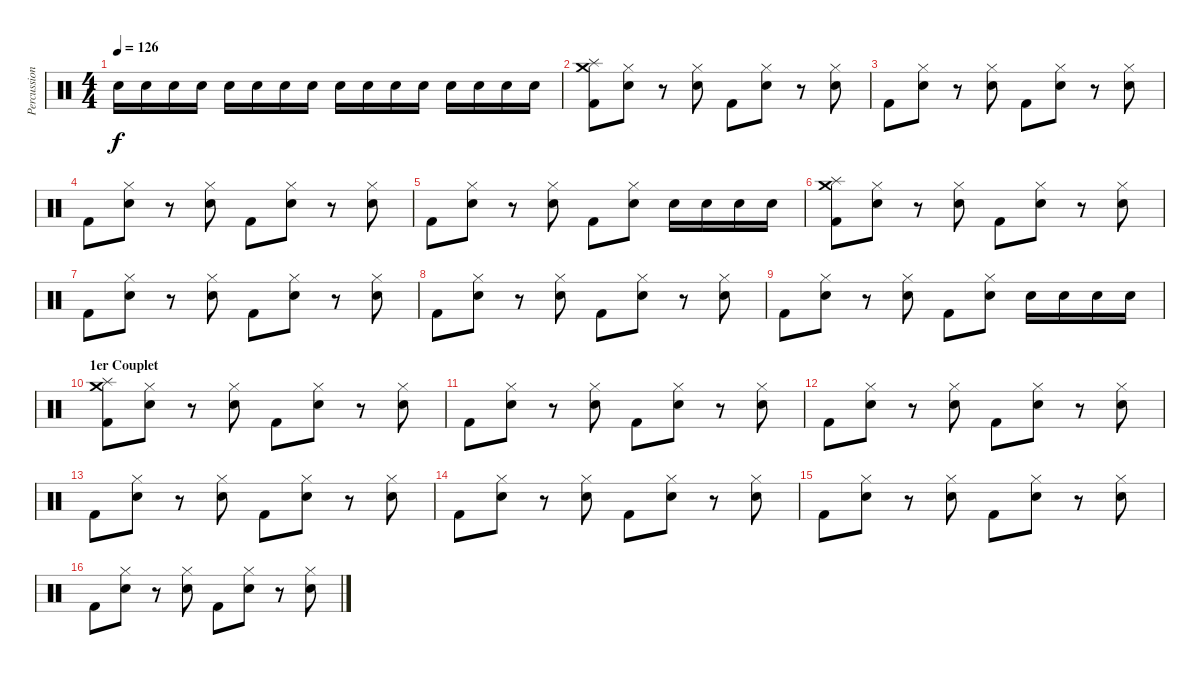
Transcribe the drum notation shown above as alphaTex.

\track ("Percussions" "Percussion") {instrument percussion}
\staff {score}
\articulation defaults
\ts (4 4)
\tempo 126
\clef neutral
\ks c "Snare (hit) 2".16{dy f} "Snare (hit) 2".16 "Snare (hit) 2".16 "Snare (hit) 2".16 "Snare (hit) 2".16 "Snare (hit) 2".16 "Snare (hit) 2".16 "Snare (hit) 2".16 "Snare (hit) 2".16 "Snare (hit) 2".16 "Snare (hit) 2".16 "Snare (hit) 2".16 "Snare (hit) 2".16 "Snare (hit) 2".16 "Snare (hit) 2".16 "Snare (hit) 2".16
|
("Kick (hit) 2" "Crash medium (hit)" "Splash (hit)").8 ("Snare (hit) 2" "Hi-Hat (closed)").8 r.8 ("Snare (hit) 2" "Hi-Hat (closed)").8 "Kick (hit) 2".8 ("Snare (hit) 2" "Hi-Hat (closed)").8 r.8 ("Snare (hit) 2" "Hi-Hat (closed)").8 |
"Kick (hit) 2".8 ("Snare (hit) 2" "Hi-Hat (closed)").8 r.8 ("Snare (hit) 2" "Hi-Hat (closed)").8 "Kick (hit) 2".8 ("Snare (hit) 2" "Hi-Hat (closed)").8 r.8 ("Snare (hit) 2" "Hi-Hat (closed)").8 |
"Kick (hit) 2".8 ("Snare (hit) 2" "Hi-Hat (closed)").8 r.8 ("Snare (hit) 2" "Hi-Hat (closed)").8 "Kick (hit) 2".8 ("Snare (hit) 2" "Hi-Hat (closed)").8 r.8 ("Snare (hit) 2" "Hi-Hat (closed)").8 |
"Kick (hit) 2".8 ("Snare (hit) 2" "Hi-Hat (closed)").8 r.8 ("Snare (hit) 2" "Hi-Hat (closed)").8 "Kick (hit) 2".8 ("Snare (hit) 2" "Hi-Hat (closed)").8 "Snare (hit) 2".16 "Snare (hit) 2".16 "Snare (hit) 2".16 "Snare (hit) 2".16 |
("Kick (hit) 2" "Splash (hit)" "Crash medium (hit)").8 ("Snare (hit) 2" "Hi-Hat (closed)").8 r.8 ("Snare (hit) 2" "Hi-Hat (closed)").8 "Kick (hit) 2".8 ("Snare (hit) 2" "Hi-Hat (closed)").8 r.8 ("Snare (hit) 2" "Hi-Hat (closed)").8 |
"Kick (hit) 2".8 ("Snare (hit) 2" "Hi-Hat (closed)").8 r.8 ("Snare (hit) 2" "Hi-Hat (closed)").8 "Kick (hit) 2".8 ("Snare (hit) 2" "Hi-Hat (closed)").8 r.8 ("Snare (hit) 2" "Hi-Hat (closed)").8 |
"Kick (hit) 2".8 ("Snare (hit) 2" "Hi-Hat (closed)").8 r.8 ("Snare (hit) 2" "Hi-Hat (closed)").8 "Kick (hit) 2".8 ("Snare (hit) 2" "Hi-Hat (closed)").8 r.8 ("Snare (hit) 2" "Hi-Hat (closed)").8 |
"Kick (hit) 2".8 ("Snare (hit) 2" "Hi-Hat (closed)").8 r.8 ("Snare (hit) 2" "Hi-Hat (closed)").8 "Kick (hit) 2".8 ("Snare (hit) 2" "Hi-Hat (closed)").8 "Snare (hit) 2".16 "Snare (hit) 2".16 "Snare (hit) 2".16 "Snare (hit) 2".16 |
\section ("" "1er Couplet")
("Kick (hit) 2" "Splash (hit)" "Crash medium (hit)").8 ("Snare (hit) 2" "Hi-Hat (closed)").8 r.8 ("Snare (hit) 2" "Hi-Hat (closed)").8 "Kick (hit) 2".8 ("Snare (hit) 2" "Hi-Hat (closed)").8 r.8 ("Snare (hit) 2" "Hi-Hat (closed)").8 |
"Kick (hit) 2".8 ("Snare (hit) 2" "Hi-Hat (closed)").8 r.8 ("Snare (hit) 2" "Hi-Hat (closed)").8 "Kick (hit) 2".8 ("Snare (hit) 2" "Hi-Hat (closed)").8 r.8 ("Snare (hit) 2" "Hi-Hat (closed)").8 |
"Kick (hit) 2".8 ("Snare (hit) 2" "Hi-Hat (closed)").8 r.8 ("Snare (hit) 2" "Hi-Hat (closed)").8 "Kick (hit) 2".8 ("Snare (hit) 2" "Hi-Hat (closed)").8 r.8 ("Snare (hit) 2" "Hi-Hat (closed)").8 |
"Kick (hit) 2".8 ("Snare (hit) 2" "Hi-Hat (closed)").8 r.8 ("Snare (hit) 2" "Hi-Hat (closed)").8 "Kick (hit) 2".8 ("Snare (hit) 2" "Hi-Hat (closed)").8 r.8 ("Snare (hit) 2" "Hi-Hat (closed)").8 |
"Kick (hit) 2".8 ("Snare (hit) 2" "Hi-Hat (closed)").8 r.8 ("Snare (hit) 2" "Hi-Hat (closed)").8 "Kick (hit) 2".8 ("Snare (hit) 2" "Hi-Hat (closed)").8 r.8 ("Snare (hit) 2" "Hi-Hat (closed)").8 |
"Kick (hit) 2".8 ("Snare (hit) 2" "Hi-Hat (closed)").8 r.8 ("Snare (hit) 2" "Hi-Hat (closed)").8 "Kick (hit) 2".8 ("Snare (hit) 2" "Hi-Hat (closed)").8 r.8 ("Snare (hit) 2" "Hi-Hat (closed)").8 |
"Kick (hit) 2".8 ("Snare (hit) 2" "Hi-Hat (closed)").8 r.8 ("Snare (hit) 2" "Hi-Hat (closed)").8 "Kick (hit) 2".8 ("Snare (hit) 2" "Hi-Hat (closed)").8 r.8 ("Snare (hit) 2" "Hi-Hat (closed)").8
